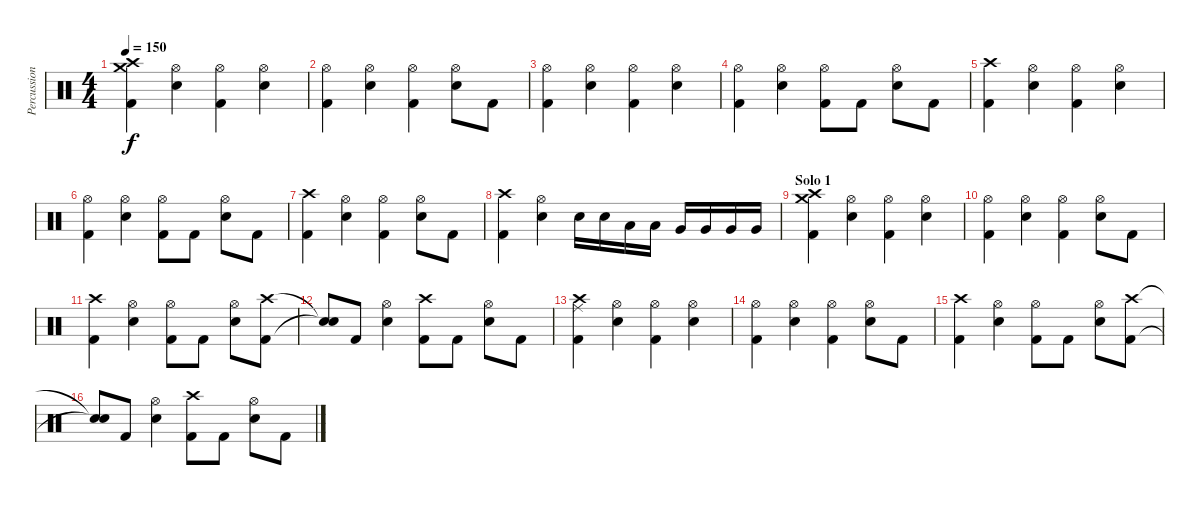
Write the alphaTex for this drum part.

\track ("Percussion" "Percussion") {instrument percussion}
\staff {score}
\articulation defaults
\ts (4 4)
\tempo 150
\clef neutral
\ks c
("Crash high (hit)" "Kick (hit) 2" "Crash medium (hit)").4{dy f} ("Hi-Hat (open)" "Electric Snare (hit)").4 ("Hi-Hat (open)" "Kick (hit) 2").4 ("Hi-Hat (open)" "Electric Snare (hit)").4 |
("Hi-Hat (open)" "Kick (hit) 2").4 ("Hi-Hat (open)" "Electric Snare (hit)").4 ("Hi-Hat (open)" "Kick (hit) 2").4 ("Hi-Hat (open)" "Electric Snare (hit)").8 "Kick (hit) 2".8 |
("Hi-Hat (open)" "Kick (hit) 2").4 ("Hi-Hat (open)" "Electric Snare (hit)").4 ("Hi-Hat (open)" "Kick (hit) 2").4 ("Hi-Hat (open)" "Electric Snare (hit)").4 |
("Hi-Hat (open)" "Kick (hit) 2").4 ("Hi-Hat (open)" "Electric Snare (hit)").4 ("Hi-Hat (open)" "Kick (hit) 2").8 "Kick (hit) 2".8 ("Hi-Hat (open)" "Electric Snare (hit)").8 "Kick (hit) 2".8 |
("Crash high (hit)" "Kick (hit) 2").4 ("Hi-Hat (open)" "Electric Snare (hit)").4 ("Hi-Hat (open)" "Kick (hit) 2").4 ("Hi-Hat (open)" "Electric Snare (hit)").4 |
("Hi-Hat (open)" "Kick (hit) 2").4 ("Hi-Hat (open)" "Electric Snare (hit)").4 ("Hi-Hat (open)" "Kick (hit) 2").8 "Kick (hit) 2".8 ("Hi-Hat (open)" "Electric Snare (hit)").8 "Kick (hit) 2".8 |
("Crash high (hit)" "Kick (hit) 2").4 ("Hi-Hat (open)" "Electric Snare (hit)").4 ("Hi-Hat (open)" "Kick (hit) 2").4 ("Hi-Hat (open)" "Electric Snare (hit)").8 "Kick (hit) 2".8 |
("Crash high (hit)" "Kick (hit) 2").4 ("Hi-Hat (open)" "Electric Snare (hit)").4 "Electric Snare (hit)".16 "Electric Snare (hit)".16 "Low Tom (hit)".16 "Low Tom (hit)".16 "Very Low Tom (hit)".16 "Very Low Tom (hit)".16 "Very Low Tom (hit)".16 "Very Low Tom (hit)".16 |
\section ("" "Solo 1")
("Crash high (hit)" "Kick (hit) 2" "Crash medium (hit)").4 ("Hi-Hat (open)" "Electric Snare (hit)").4 ("Hi-Hat (open)" "Kick (hit) 2").4 ("Hi-Hat (open)" "Electric Snare (hit)").4 |
("Hi-Hat (open)" "Kick (hit) 2").4 ("Hi-Hat (open)" "Electric Snare (hit)").4 ("Hi-Hat (open)" "Kick (hit) 2").4 ("Hi-Hat (open)" "Electric Snare (hit)").8 "Kick (hit) 2".8 |
("Crash high (hit)" "Kick (hit) 2").4 ("Hi-Hat (open)" "Electric Snare (hit)").4 ("Hi-Hat (open)" "Kick (hit) 2").8 "Kick (hit) 2".8 ("Hi-Hat (open)" "Electric Snare (hit)").8 ("Crash high (hit)" "Kick (hit) 2").8 |
("Snare (hit)"{t} "Snare (hit)"{t}).8 "Kick (hit) 2".8 ("Hi-Hat (open)" "Electric Snare (hit)").4 ("Crash high (hit)" "Kick (hit) 2").8 "Kick (hit) 2".8 ("Hi-Hat (open)" "Electric Snare (hit)").8 "Kick (hit) 2".8 |
("Crash high (hit)" "Kick (hit) 2" "Ride (middle)").4 ("Hi-Hat (open)" "Electric Snare (hit)").4 ("Hi-Hat (open)" "Kick (hit) 2").4 ("Hi-Hat (open)" "Electric Snare (hit)").4 |
("Hi-Hat (open)" "Kick (hit) 2").4 ("Hi-Hat (open)" "Electric Snare (hit)").4 ("Hi-Hat (open)" "Kick (hit) 2").4 ("Hi-Hat (open)" "Electric Snare (hit)").8 "Kick (hit) 2".8 |
("Crash high (hit)" "Kick (hit) 2").4 ("Hi-Hat (open)" "Electric Snare (hit)").4 ("Hi-Hat (open)" "Kick (hit) 2").8 "Kick (hit) 2".8 ("Hi-Hat (open)" "Electric Snare (hit)").8 ("Crash high (hit)" "Kick (hit) 2").8 |
("Snare (hit)"{t} "Snare (hit)"{t}).8 "Kick (hit) 2".8 ("Hi-Hat (open)" "Electric Snare (hit)").4 ("Crash high (hit)" "Kick (hit) 2").8 "Kick (hit) 2".8 ("Hi-Hat (open)" "Electric Snare (hit)").8 "Kick (hit) 2".8
